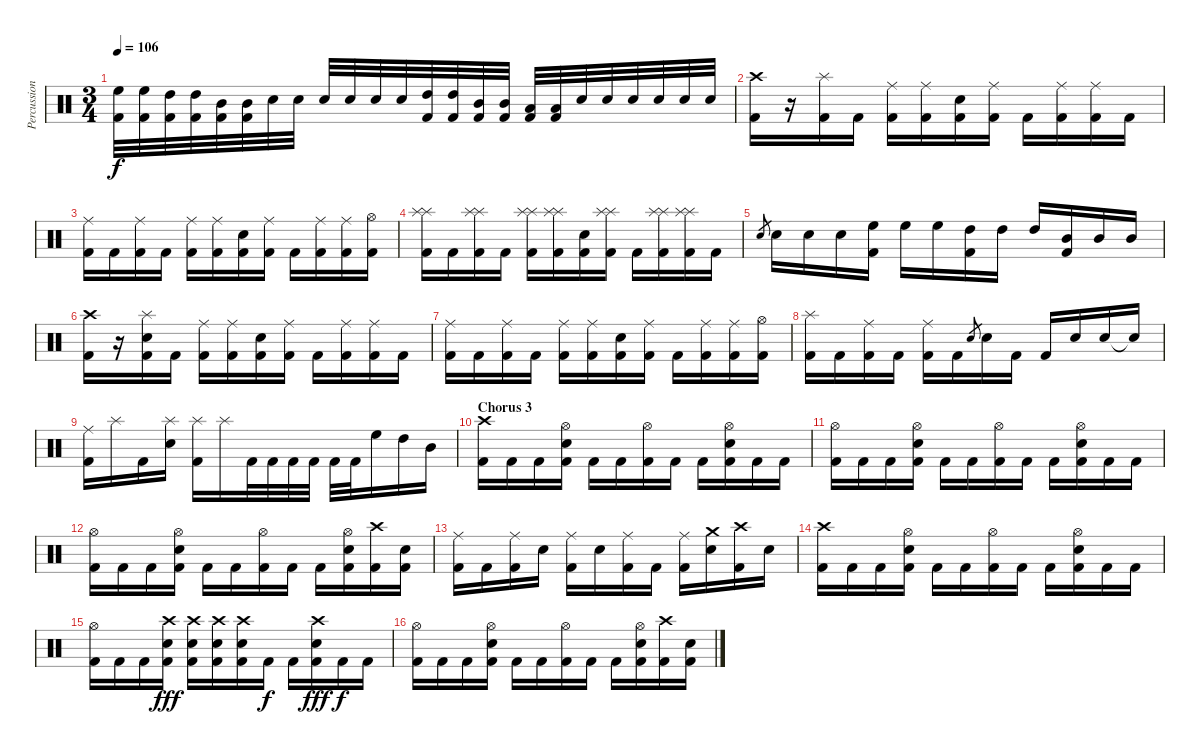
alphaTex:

\track ("Percussion" "Percussion") {instrument percussion}
\staff {score}
\articulation defaults
\ts (3 4)
\tempo 106
\clef neutral
\ks c
("High Floor Tom (hit)" "Kick (hit) 2").32{dy f} ("High Floor Tom (hit)" "Kick (hit) 2").32 ("High Tom (hit)" "Kick (hit) 2").32 ("High Tom (hit)" "Kick (hit) 2").32 ("Mid Tom (hit)" "Kick (hit) 2").32 ("Mid Tom (hit)" "Kick (hit) 2").32 "Electric Snare (hit)".32 "Electric Snare (hit)".32 "Electric Snare (hit)".32 "Electric Snare (hit)".32 "Electric Snare (hit)".32 "Electric Snare (hit)".32 ("High Tom (hit)" "Kick (hit) 2").32 ("High Tom (hit)" "Kick (hit) 2").32 ("Mid Tom (hit)" "Kick (hit) 2").32 ("Mid Tom (hit)" "Kick (hit) 2").32 ("Low Tom (hit)" "Kick (hit) 2").32 ("Low Tom (hit)" "Kick (hit) 2").32 "Electric Snare (hit)".32 "Electric Snare (hit)".32 "Electric Snare (hit)".32 "Electric Snare (hit)".32 "Electric Snare (hit)".32 "Electric Snare (hit)".32 |
("Crash high (hit)" "Kick (hit) 2").16 r.16 ("Splash (hit)" "Kick (hit) 2").16 "Kick (hit) 2".16 ("Ride (middle)" "Kick (hit) 2").16 ("Ride (middle)" "Kick (hit) 2").16 ("Electric Snare (hit)" "Kick (hit) 2").16 ("Ride (middle)" "Kick (hit) 2").16 "Kick (hit) 2".16 ("Ride (middle)" "Kick (hit) 2").16 ("Ride (middle)" "Kick (hit) 2").16 "Kick (hit) 2".16 |
("Ride (middle)" "Kick (hit) 2").16 "Kick (hit) 2".16 ("Ride (middle)" "Kick (hit) 2").16 "Kick (hit) 2".16 ("Ride (middle)" "Kick (hit) 2").16 ("Ride (middle)" "Kick (hit) 2").16 ("Electric Snare (hit)" "Kick (hit) 2").16 ("Ride (middle)" "Kick (hit) 2").16 "Kick (hit) 2".16 ("Ride (middle)" "Kick (hit) 2").16 ("Ride (middle)" "Kick (hit) 2").16 ("Hi-Hat (open)" "Kick (hit) 2").16 |
("Splash (hit)" "Splash (hit)" "Kick (hit) 2").16 "Kick (hit) 2".16 ("Splash (hit)" "Splash (hit)" "Kick (hit) 2").16 "Kick (hit) 2".16 ("Splash (hit)" "Splash (hit)" "Kick (hit) 2").16 ("Splash (hit)" "Splash (hit)" "Kick (hit) 2").16 ("Electric Snare (hit)" "Kick (hit) 2").16 ("Splash (hit)" "Splash (hit)" "Kick (hit) 2").16 "Kick (hit) 2".16 ("Splash (hit)" "Splash (hit)" "Kick (hit) 2").16 ("Splash (hit)" "Splash (hit)" "Kick (hit) 2").16 "Kick (hit) 2".16 |
"Electric Snare (hit)".8{gr} "Electric Snare (hit)".16 "Electric Snare (hit)".16 "Electric Snare (hit)".16 ("Kick (hit) 2" "High Floor Tom (hit)").16 "High Floor Tom (hit)".16 "High Floor Tom (hit)".16 ("Kick (hit) 2" "High Tom (hit)").16 "High Tom (hit)".16 "High Tom (hit)".16 ("Kick (hit) 2" "Mid Tom (hit)").16 "Mid Tom (hit)".16 "Mid Tom (hit)".16 |
("Crash high (hit)" "Kick (hit) 2").16 r.16 ("Splash (hit)" "Electric Snare (hit)" "Kick (hit) 2").16 "Kick (hit) 2".16 ("Ride (middle)" "Kick (hit) 2").16 ("Ride (middle)" "Kick (hit) 2").16 ("Electric Snare (hit)" "Kick (hit) 2").16 ("Ride (middle)" "Kick (hit) 2").16 "Kick (hit) 2".16 ("Ride (middle)" "Kick (hit) 2").16 ("Ride (middle)" "Kick (hit) 2").16 "Kick (hit) 2".16 |
("Ride (middle)" "Kick (hit) 2").16 "Kick (hit) 2".16 ("Ride (middle)" "Kick (hit) 2").16 "Kick (hit) 2".16 ("Ride (middle)" "Kick (hit) 2").16 ("Ride (middle)" "Kick (hit) 2").16 ("Electric Snare (hit)" "Kick (hit) 2").16 ("Ride (middle)" "Kick (hit) 2").16 "Kick (hit) 2".16 ("Ride (middle)" "Kick (hit) 2").16 ("Ride (middle)" "Kick (hit) 2").16 ("Hi-Hat (open)" "Kick (hit) 2").16 |
("Splash (hit)" "Kick (hit) 2").16 "Kick (hit) 2".16 ("Ride (middle)" "Kick (hit) 2").16 "Kick (hit) 2".16 ("Ride (middle)" "Kick (hit) 2").16 "Kick (hit) 2".16 "Electric Snare (hit)".8{gr} "Electric Snare (hit)".16 "Kick (hit) 2".16 "Kick (hit) 2".16 "Electric Snare (hit)".16 "Electric Snare (hit)".16 "Snare (hit)"{t}.16 |
("Ride (middle)" "Kick (hit) 2").16 "Splash (hit)".16 "Kick (hit) 2".16 ("Splash (hit)" "Electric Snare (hit)").16 ("Splash (hit)" "Kick (hit) 2").16 "Splash (hit)".16 "Kick (hit) 2".32 "Kick (hit) 2".32 "Kick (hit) 2".32 "Kick (hit) 2".32 "Kick (hit) 2".32 "Kick (hit) 2".32 "High Floor Tom (hit)".16 "High Tom (hit)".16 "Mid Tom (hit)".16 |
\section ("" "Chorus 3")
("Crash high (hit)" "Kick (hit) 2").16 "Kick (hit) 2".16 "Kick (hit) 2".16 ("Hi-Hat (open)" "Electric Snare (hit)" "Kick (hit) 2").16 "Kick (hit) 2".16 "Kick (hit) 2".16 ("Hi-Hat (open)" "Kick (hit) 2").16 "Kick (hit) 2".16 "Kick (hit) 2".16 ("Hi-Hat (open)" "Electric Snare (hit)" "Kick (hit) 2").16 "Kick (hit) 2".16 "Kick (hit) 2".16 |
("Hi-Hat (open)" "Kick (hit) 2").16 "Kick (hit) 2".16 "Kick (hit) 2".16 ("Hi-Hat (open)" "Electric Snare (hit)" "Kick (hit) 2").16 "Kick (hit) 2".16 "Kick (hit) 2".16 ("Hi-Hat (open)" "Kick (hit) 2").16 "Kick (hit) 2".16 "Kick (hit) 2".16 ("Hi-Hat (open)" "Electric Snare (hit)" "Kick (hit) 2").16 "Kick (hit) 2".16 "Kick (hit) 2".16 |
("Hi-Hat (open)" "Kick (hit) 2").16 "Kick (hit) 2".16 "Kick (hit) 2".16 ("Hi-Hat (open)" "Electric Snare (hit)" "Kick (hit) 2").16 "Kick (hit) 2".16 "Kick (hit) 2".16 ("Hi-Hat (open)" "Kick (hit) 2").16 "Kick (hit) 2".16 "Kick (hit) 2".16 ("Hi-Hat (open)" "Electric Snare (hit)" "Kick (hit) 2").16 ("Crash high (hit)" "Kick (hit) 2").16 ("Electric Snare (hit)" "Kick (hit) 2").16 |
("Ride (middle)" "Kick (hit) 2").16 "Kick (hit) 2".16 ("Ride (middle)" "Kick (hit) 2").16 "Electric Snare (hit)".16 ("Ride (middle)" "Kick (hit) 2").16 "Electric Snare (hit)".16 ("Ride (middle)" "Kick (hit) 2").16 "Kick (hit) 2".16 ("Ride (middle)" "Kick (hit) 2").16 ("Crash medium (hit)" "Electric Snare (hit)").16 ("Crash high (hit)" "Kick (hit) 2").16 "Electric Snare (hit)".16 |
("Crash high (hit)" "Kick (hit) 2").16 "Kick (hit) 2".16 "Kick (hit) 2".16 ("Hi-Hat (open)" "Electric Snare (hit)" "Kick (hit) 2").16 "Kick (hit) 2".16 "Kick (hit) 2".16 ("Hi-Hat (open)" "Kick (hit) 2").16 "Kick (hit) 2".16 "Kick (hit) 2".16 ("Hi-Hat (open)" "Electric Snare (hit)" "Kick (hit) 2").16 "Kick (hit) 2".16 "Kick (hit) 2".16 |
("Hi-Hat (open)" "Kick (hit) 2").16 "Kick (hit) 2".16 "Kick (hit) 2".16 ("Crash high (hit)" "Electric Snare (hit)" "Kick (hit) 2").16{dy fff} ("Crash high (hit)" "Electric Snare (hit)" "Kick (hit) 2").16 ("Crash high (hit)" "Electric Snare (hit)" "Kick (hit) 2").16 ("Crash high (hit)" "Electric Snare (hit)" "Kick (hit) 2").16 "Kick (hit) 2".16{dy f} "Kick (hit) 2".16 ("Crash high (hit)" "Electric Snare (hit)" "Kick (hit) 2").16{dy fff} "Kick (hit) 2".16{dy f} "Kick (hit) 2".16 |
("Hi-Hat (open)" "Kick (hit) 2").16 "Kick (hit) 2".16 "Kick (hit) 2".16 ("Hi-Hat (open)" "Electric Snare (hit)" "Kick (hit) 2").16 "Kick (hit) 2".16 "Kick (hit) 2".16 ("Hi-Hat (open)" "Kick (hit) 2").16 "Kick (hit) 2".16 "Kick (hit) 2".16 ("Hi-Hat (open)" "Electric Snare (hit)" "Kick (hit) 2").16 ("Crash high (hit)" "Kick (hit) 2").16 ("Electric Snare (hit)" "Kick (hit) 2").16
